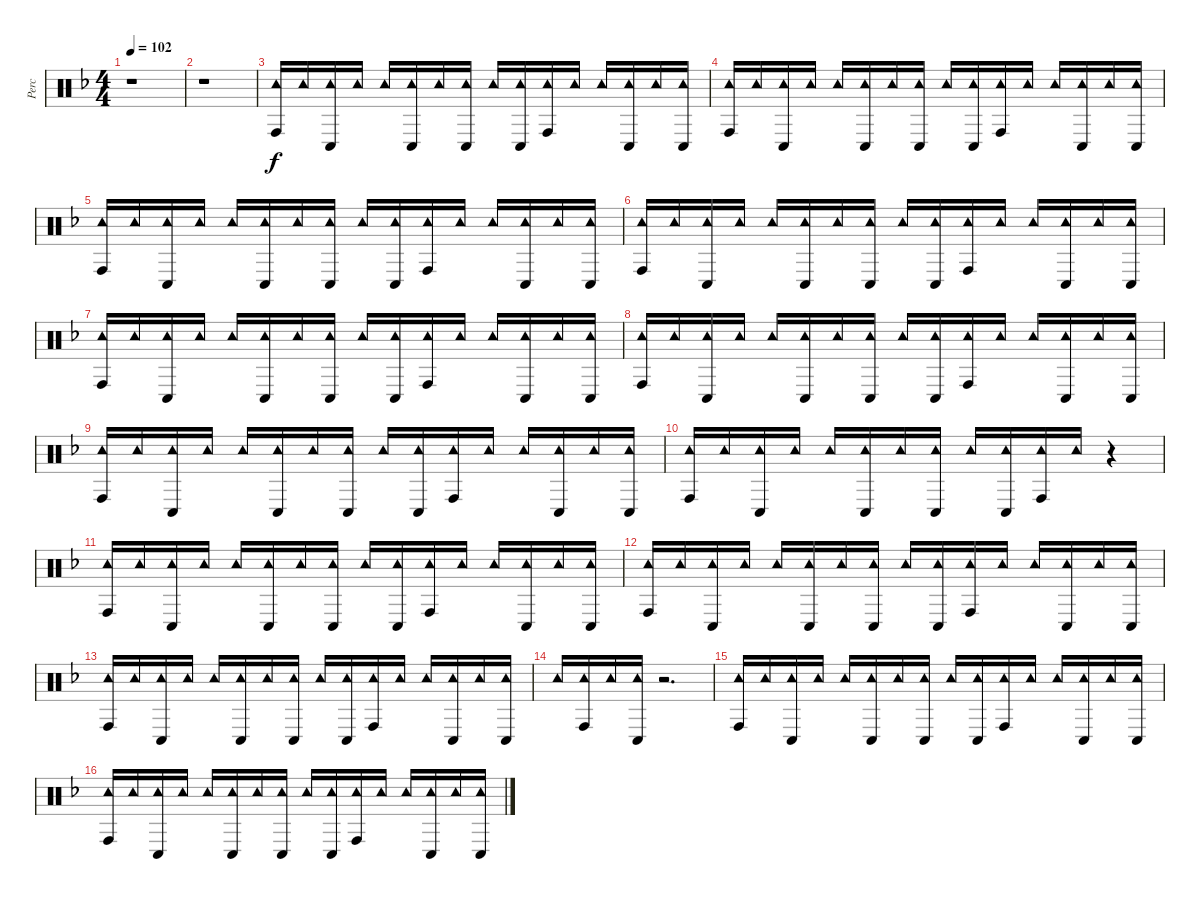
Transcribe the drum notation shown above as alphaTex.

\track ("Perc" "Perc") {instrument percussion}
\staff {score}
\articulation defaults
\ts (4 4)
\tempo 102
\clef neutral
\ks f
r.1{dy f} |
r.1 |
("Tambourine (hit)" "Conga high (hit)").16 "Tambourine (hit)".16 ("Tambourine (hit)" "Conga low (hit)").16 "Tambourine (hit)".16 "Tambourine (hit)".16 ("Tambourine (hit)" "Conga low (hit)").16 "Tambourine (hit)".16 ("Tambourine (hit)" "Conga low (hit)").16 "Tambourine (hit)".16 ("Tambourine (hit)" "Conga low (hit)").16 ("Tambourine (hit)" "Conga high (hit)").16 "Tambourine (hit)".16 "Tambourine (hit)".16 ("Tambourine (hit)" "Conga low (hit)").16 "Tambourine (hit)".16 ("Tambourine (hit)" "Conga low (hit)").16 |
("Tambourine (hit)" "Conga high (hit)").16 "Tambourine (hit)".16 ("Tambourine (hit)" "Conga low (hit)").16 "Tambourine (hit)".16 "Tambourine (hit)".16 ("Tambourine (hit)" "Conga low (hit)").16 "Tambourine (hit)".16 ("Tambourine (hit)" "Conga low (hit)").16 "Tambourine (hit)".16 ("Tambourine (hit)" "Conga low (hit)").16 ("Tambourine (hit)" "Conga high (hit)").16 "Tambourine (hit)".16 "Tambourine (hit)".16 ("Tambourine (hit)" "Conga low (hit)").16 "Tambourine (hit)".16 ("Tambourine (hit)" "Conga low (hit)").16 |
("Tambourine (hit)" "Conga high (hit)").16 "Tambourine (hit)".16 ("Tambourine (hit)" "Conga low (hit)").16 "Tambourine (hit)".16 "Tambourine (hit)".16 ("Tambourine (hit)" "Conga low (hit)").16 "Tambourine (hit)".16 ("Tambourine (hit)" "Conga low (hit)").16 "Tambourine (hit)".16 ("Tambourine (hit)" "Conga low (hit)").16 ("Tambourine (hit)" "Conga high (hit)").16 "Tambourine (hit)".16 "Tambourine (hit)".16 ("Tambourine (hit)" "Conga low (hit)").16 "Tambourine (hit)".16 ("Tambourine (hit)" "Conga low (hit)").16 |
("Tambourine (hit)" "Conga high (hit)").16 "Tambourine (hit)".16 ("Tambourine (hit)" "Conga low (hit)").16 "Tambourine (hit)".16 "Tambourine (hit)".16 ("Tambourine (hit)" "Conga low (hit)").16 "Tambourine (hit)".16 ("Tambourine (hit)" "Conga low (hit)").16 "Tambourine (hit)".16 ("Tambourine (hit)" "Conga low (hit)").16 ("Tambourine (hit)" "Conga high (hit)").16 "Tambourine (hit)".16 "Tambourine (hit)".16 ("Tambourine (hit)" "Conga low (hit)").16 "Tambourine (hit)".16 ("Tambourine (hit)" "Conga low (hit)").16 |
("Tambourine (hit)" "Conga high (hit)").16 "Tambourine (hit)".16 ("Tambourine (hit)" "Conga low (hit)").16 "Tambourine (hit)".16 "Tambourine (hit)".16 ("Tambourine (hit)" "Conga low (hit)").16 "Tambourine (hit)".16 ("Tambourine (hit)" "Conga low (hit)").16 "Tambourine (hit)".16 ("Tambourine (hit)" "Conga low (hit)").16 ("Tambourine (hit)" "Conga high (hit)").16 "Tambourine (hit)".16 "Tambourine (hit)".16 ("Tambourine (hit)" "Conga low (hit)").16 "Tambourine (hit)".16 ("Tambourine (hit)" "Conga low (hit)").16 |
("Tambourine (hit)" "Conga high (hit)").16 "Tambourine (hit)".16 ("Tambourine (hit)" "Conga low (hit)").16 "Tambourine (hit)".16 "Tambourine (hit)".16 ("Tambourine (hit)" "Conga low (hit)").16 "Tambourine (hit)".16 ("Tambourine (hit)" "Conga low (hit)").16 "Tambourine (hit)".16 ("Tambourine (hit)" "Conga low (hit)").16 ("Tambourine (hit)" "Conga high (hit)").16 "Tambourine (hit)".16 "Tambourine (hit)".16 ("Tambourine (hit)" "Conga low (hit)").16 "Tambourine (hit)".16 ("Tambourine (hit)" "Conga low (hit)").16 |
("Tambourine (hit)" "Conga high (hit)").16 "Tambourine (hit)".16 ("Tambourine (hit)" "Conga low (hit)").16 "Tambourine (hit)".16 "Tambourine (hit)".16 ("Tambourine (hit)" "Conga low (hit)").16 "Tambourine (hit)".16 ("Tambourine (hit)" "Conga low (hit)").16 "Tambourine (hit)".16 ("Tambourine (hit)" "Conga low (hit)").16 ("Tambourine (hit)" "Conga high (hit)").16 "Tambourine (hit)".16 "Tambourine (hit)".16 ("Tambourine (hit)" "Conga low (hit)").16 "Tambourine (hit)".16 ("Tambourine (hit)" "Conga low (hit)").16 |
("Tambourine (hit)" "Conga high (hit)").16 "Tambourine (hit)".16 ("Tambourine (hit)" "Conga low (hit)").16 "Tambourine (hit)".16 "Tambourine (hit)".16 ("Tambourine (hit)" "Conga low (hit)").16 "Tambourine (hit)".16 ("Tambourine (hit)" "Conga low (hit)").16 "Tambourine (hit)".16 ("Tambourine (hit)" "Conga low (hit)").16 ("Tambourine (hit)" "Conga high (hit)").16 "Tambourine (hit)".16 r.4 |
("Tambourine (hit)" "Conga high (hit)").16 "Tambourine (hit)".16 ("Tambourine (hit)" "Conga low (hit)").16 "Tambourine (hit)".16 "Tambourine (hit)".16 ("Tambourine (hit)" "Conga low (hit)").16 "Tambourine (hit)".16 ("Tambourine (hit)" "Conga low (hit)").16 "Tambourine (hit)".16 ("Tambourine (hit)" "Conga low (hit)").16 ("Tambourine (hit)" "Conga high (hit)").16 "Tambourine (hit)".16 "Tambourine (hit)".16 ("Tambourine (hit)" "Conga low (hit)").16 "Tambourine (hit)".16 ("Tambourine (hit)" "Conga low (hit)").16 |
("Tambourine (hit)" "Conga high (hit)").16 "Tambourine (hit)".16 ("Tambourine (hit)" "Conga low (hit)").16 "Tambourine (hit)".16 "Tambourine (hit)".16 ("Tambourine (hit)" "Conga low (hit)").16 "Tambourine (hit)".16 ("Tambourine (hit)" "Conga low (hit)").16 "Tambourine (hit)".16 ("Tambourine (hit)" "Conga low (hit)").16 ("Tambourine (hit)" "Conga high (hit)").16 "Tambourine (hit)".16 "Tambourine (hit)".16 ("Tambourine (hit)" "Conga low (hit)").16 "Tambourine (hit)".16 ("Tambourine (hit)" "Conga low (hit)").16 |
("Tambourine (hit)" "Conga high (hit)").16 "Tambourine (hit)".16 ("Tambourine (hit)" "Conga low (hit)").16 "Tambourine (hit)".16 "Tambourine (hit)".16 ("Tambourine (hit)" "Conga low (hit)").16 "Tambourine (hit)".16 ("Tambourine (hit)" "Conga low (hit)").16 "Tambourine (hit)".16 ("Tambourine (hit)" "Conga low (hit)").16 ("Tambourine (hit)" "Conga high (hit)").16 "Tambourine (hit)".16 "Tambourine (hit)".16 ("Tambourine (hit)" "Conga low (hit)").16 "Tambourine (hit)".16 ("Tambourine (hit)" "Conga low (hit)").16 |
"Tambourine (hit)".16 ("Tambourine (hit)" "Conga high (hit)").16 "Tambourine (hit)".16 ("Tambourine (hit)" "Conga low (hit)").16 r.2{d} |
("Tambourine (hit)" "Conga high (hit)").16 "Tambourine (hit)".16 ("Tambourine (hit)" "Conga low (hit)").16 "Tambourine (hit)".16 "Tambourine (hit)".16 ("Tambourine (hit)" "Conga low (hit)").16 "Tambourine (hit)".16 ("Tambourine (hit)" "Conga low (hit)").16 "Tambourine (hit)".16 ("Tambourine (hit)" "Conga low (hit)").16 ("Tambourine (hit)" "Conga high (hit)").16 "Tambourine (hit)".16 "Tambourine (hit)".16 ("Tambourine (hit)" "Conga low (hit)").16 "Tambourine (hit)".16 ("Tambourine (hit)" "Conga low (hit)").16 |
("Tambourine (hit)" "Conga high (hit)").16 "Tambourine (hit)".16 ("Tambourine (hit)" "Conga low (hit)").16 "Tambourine (hit)".16 "Tambourine (hit)".16 ("Tambourine (hit)" "Conga low (hit)").16 "Tambourine (hit)".16 ("Tambourine (hit)" "Conga low (hit)").16 "Tambourine (hit)".16 ("Tambourine (hit)" "Conga low (hit)").16 ("Tambourine (hit)" "Conga high (hit)").16 "Tambourine (hit)".16 "Tambourine (hit)".16 ("Tambourine (hit)" "Conga low (hit)").16 "Tambourine (hit)".16 ("Tambourine (hit)" "Conga low (hit)").16
